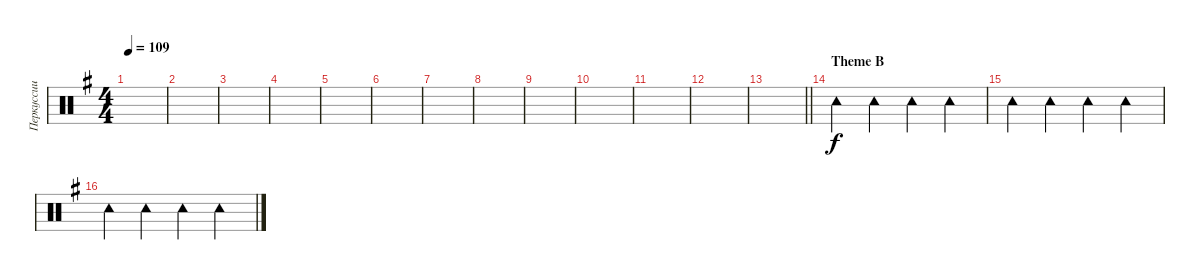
\track ("Перкуссии" "Перкуссии") {instrument percussion}
\staff {score}
\articulation defaults
\ts (4 4)
\tempo 109
\clef neutral
\ks eminor
|
|
|
|
|
|
|
|
|
|
|
|
\barLineRight lightlight
|
\section ("" "Theme B")
"Tambourine (hit)".4 "Tambourine (hit)".4 "Tambourine (hit)".4 "Tambourine (hit)".4 |
"Tambourine (hit)".4 "Tambourine (hit)".4 "Tambourine (hit)".4 "Tambourine (hit)".4 |
"Tambourine (hit)".4 "Tambourine (hit)".4 "Tambourine (hit)".4 "Tambourine (hit)".4
